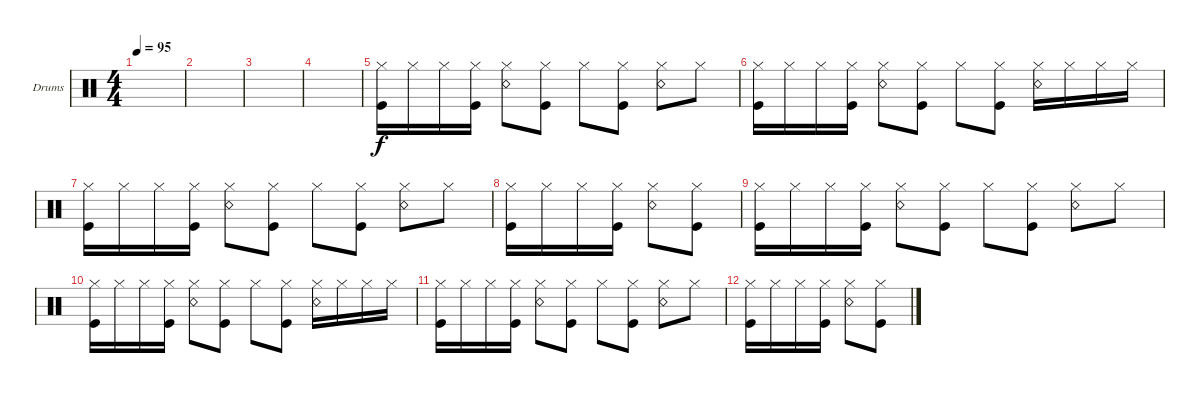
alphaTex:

\defaultSystemsLayout 4
\bracketExtendMode groupsimilarinstruments
\firstSystemTrackNameOrientation horizontal
\otherSystemsTrackNameOrientation horizontal
\track ("Drumkit" "Drums") {instrument percussion}
\staff {score}
\articulation defaults
\ts (4 4)
\tempo 95
\clef neutral
\ks c
|
|
|
|
("Hi-Hat (closed)" "Kick (hit)").16 "Hi-Hat (closed)".16 "Hi-Hat (closed)".16 ("Hi-Hat (closed)" "Kick (hit)").16 ("Hi-Hat (closed)" "Snare (rim shot)").8 ("Hi-Hat (closed)" "Kick (hit)").8 "Hi-Hat (closed)".8 ("Hi-Hat (closed)" "Kick (hit)").8 ("Snare (rim shot)" "Hi-Hat (closed)").8 "Hi-Hat (closed)".8 |
("Hi-Hat (closed)" "Kick (hit)").16 "Hi-Hat (closed)".16 "Hi-Hat (closed)".16 ("Hi-Hat (closed)" "Kick (hit)").16 ("Hi-Hat (closed)" "Snare (rim shot)").8 ("Hi-Hat (closed)" "Kick (hit)").8 "Hi-Hat (closed)".8 ("Hi-Hat (closed)" "Kick (hit)").8 ("Snare (rim shot)" "Hi-Hat (closed)").16 "Hi-Hat (closed)".16 "Hi-Hat (closed)".16 "Hi-Hat (closed)".16 |
("Hi-Hat (closed)" "Kick (hit)").16 "Hi-Hat (closed)".16 "Hi-Hat (closed)".16 ("Hi-Hat (closed)" "Kick (hit)").16 ("Hi-Hat (closed)" "Snare (rim shot)").8 ("Hi-Hat (closed)" "Kick (hit)").8 "Hi-Hat (closed)".8 ("Hi-Hat (closed)" "Kick (hit)").8 ("Snare (rim shot)" "Hi-Hat (closed)").8 "Hi-Hat (closed)".8 |
("Hi-Hat (closed)" "Kick (hit)").16 "Hi-Hat (closed)".16 "Hi-Hat (closed)".16 ("Hi-Hat (closed)" "Kick (hit)").16 ("Hi-Hat (closed)" "Snare (rim shot)").8 ("Hi-Hat (closed)" "Kick (hit)").8 |
("Hi-Hat (closed)" "Kick (hit)").16 "Hi-Hat (closed)".16 "Hi-Hat (closed)".16 ("Hi-Hat (closed)" "Kick (hit)").16 ("Hi-Hat (closed)" "Snare (rim shot)").8 ("Hi-Hat (closed)" "Kick (hit)").8 "Hi-Hat (closed)".8 ("Hi-Hat (closed)" "Kick (hit)").8 ("Snare (rim shot)" "Hi-Hat (closed)").8 "Hi-Hat (closed)".8 |
("Hi-Hat (closed)" "Kick (hit)").16 "Hi-Hat (closed)".16 "Hi-Hat (closed)".16 ("Hi-Hat (closed)" "Kick (hit)").16 ("Hi-Hat (closed)" "Snare (rim shot)").8 ("Hi-Hat (closed)" "Kick (hit)").8 "Hi-Hat (closed)".8 ("Hi-Hat (closed)" "Kick (hit)").8 ("Snare (rim shot)" "Hi-Hat (closed)").16 "Hi-Hat (closed)".16 "Hi-Hat (closed)".16 "Hi-Hat (closed)".16 |
("Hi-Hat (closed)" "Kick (hit)").16 "Hi-Hat (closed)".16 "Hi-Hat (closed)".16 ("Hi-Hat (closed)" "Kick (hit)").16 ("Hi-Hat (closed)" "Snare (rim shot)").8 ("Hi-Hat (closed)" "Kick (hit)").8 "Hi-Hat (closed)".8 ("Hi-Hat (closed)" "Kick (hit)").8 ("Snare (rim shot)" "Hi-Hat (closed)").8 "Hi-Hat (closed)".8 |
("Hi-Hat (closed)" "Kick (hit)").16 "Hi-Hat (closed)".16 "Hi-Hat (closed)".16 ("Hi-Hat (closed)" "Kick (hit)").16 ("Hi-Hat (closed)" "Snare (rim shot)").8 ("Hi-Hat (closed)" "Kick (hit)").8
